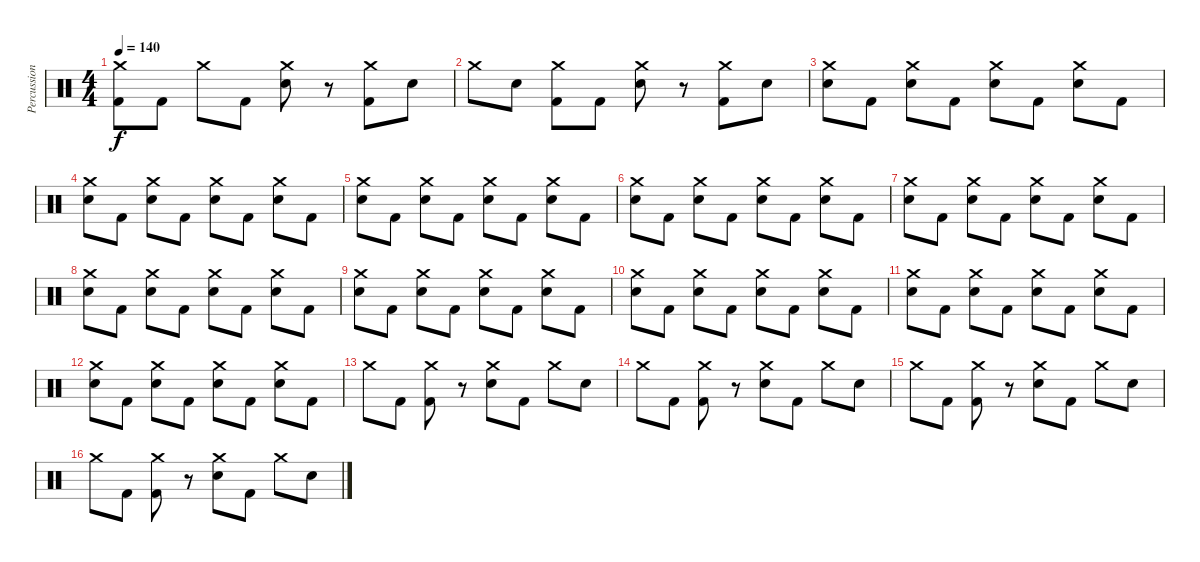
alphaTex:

\track ("Percussion" "Percussion") {instrument percussion}
\staff {score}
\articulation defaults
\ts (4 4)
\tempo 140
\clef neutral
\ks c
("Crash medium (hit)" "Kick (hit) 2").8{dy f} "Kick (hit) 2".8 "Crash medium (hit)".8 "Kick (hit) 2".8 ("Crash medium (hit)" "Electric Snare (hit)").8 r.8 ("Crash medium (hit)" "Kick (hit) 2").8 "Electric Snare (hit)".8 |
"Crash medium (hit)".8 "Electric Snare (hit)".8 ("Crash medium (hit)" "Kick (hit) 2").8 "Kick (hit) 2".8 ("Crash medium (hit)" "Electric Snare (hit)").8 r.8 ("Crash medium (hit)" "Kick (hit) 2").8 "Electric Snare (hit)".8 |
("Crash medium (hit)" "Electric Snare (hit)").8 "Kick (hit) 2".8 ("Crash medium (hit)" "Electric Snare (hit)").8 "Kick (hit) 2".8 ("Crash medium (hit)" "Electric Snare (hit)").8 "Kick (hit) 2".8 ("Crash medium (hit)" "Electric Snare (hit)").8 "Kick (hit) 2".8 |
("Crash medium (hit)" "Electric Snare (hit)").8 "Kick (hit) 2".8 ("Crash medium (hit)" "Electric Snare (hit)").8 "Kick (hit) 2".8 ("Crash medium (hit)" "Electric Snare (hit)").8 "Kick (hit) 2".8 ("Crash medium (hit)" "Electric Snare (hit)").8 "Kick (hit) 2".8 |
("Crash medium (hit)" "Electric Snare (hit)").8 "Kick (hit) 2".8 ("Crash medium (hit)" "Electric Snare (hit)").8 "Kick (hit) 2".8 ("Crash medium (hit)" "Electric Snare (hit)").8 "Kick (hit) 2".8 ("Crash medium (hit)" "Electric Snare (hit)").8 "Kick (hit) 2".8 |
("Crash medium (hit)" "Electric Snare (hit)").8 "Kick (hit) 2".8 ("Crash medium (hit)" "Electric Snare (hit)").8 "Kick (hit) 2".8 ("Crash medium (hit)" "Electric Snare (hit)").8 "Kick (hit) 2".8 ("Crash medium (hit)" "Electric Snare (hit)").8 "Kick (hit) 2".8 |
("Crash medium (hit)" "Electric Snare (hit)").8 "Kick (hit) 2".8 ("Crash medium (hit)" "Electric Snare (hit)").8 "Kick (hit) 2".8 ("Crash medium (hit)" "Electric Snare (hit)").8 "Kick (hit) 2".8 ("Crash medium (hit)" "Electric Snare (hit)").8 "Kick (hit) 2".8 |
("Crash medium (hit)" "Electric Snare (hit)").8 "Kick (hit) 2".8 ("Crash medium (hit)" "Electric Snare (hit)").8 "Kick (hit) 2".8 ("Crash medium (hit)" "Electric Snare (hit)").8 "Kick (hit) 2".8 ("Crash medium (hit)" "Electric Snare (hit)").8 "Kick (hit) 2".8 |
("Crash medium (hit)" "Electric Snare (hit)").8 "Kick (hit) 2".8 ("Crash medium (hit)" "Electric Snare (hit)").8 "Kick (hit) 2".8 ("Crash medium (hit)" "Electric Snare (hit)").8 "Kick (hit) 2".8 ("Crash medium (hit)" "Electric Snare (hit)").8 "Kick (hit) 2".8 |
("Crash medium (hit)" "Electric Snare (hit)").8 "Kick (hit) 2".8 ("Crash medium (hit)" "Electric Snare (hit)").8 "Kick (hit) 2".8 ("Crash medium (hit)" "Electric Snare (hit)").8 "Kick (hit) 2".8 ("Crash medium (hit)" "Electric Snare (hit)").8 "Kick (hit) 2".8 |
("Crash medium (hit)" "Electric Snare (hit)").8 "Kick (hit) 2".8 ("Crash medium (hit)" "Electric Snare (hit)").8 "Kick (hit) 2".8 ("Crash medium (hit)" "Electric Snare (hit)").8 "Kick (hit) 2".8 ("Crash medium (hit)" "Electric Snare (hit)").8 "Kick (hit) 2".8 |
("Crash medium (hit)" "Electric Snare (hit)").8 "Kick (hit) 2".8 ("Crash medium (hit)" "Electric Snare (hit)").8 "Kick (hit) 2".8 ("Crash medium (hit)" "Electric Snare (hit)").8 "Kick (hit) 2".8 ("Crash medium (hit)" "Electric Snare (hit)").8 "Kick (hit) 2".8 |
"Crash medium (hit)".8 "Kick (hit) 2".8 ("Crash medium (hit)" "Kick (hit) 2").8 r.8 ("Crash medium (hit)" "Electric Snare (hit)").8 "Kick (hit) 2".8 "Crash medium (hit)".8 "Electric Snare (hit)".8 |
"Crash medium (hit)".8 "Kick (hit) 2".8 ("Crash medium (hit)" "Kick (hit) 2").8 r.8 ("Crash medium (hit)" "Electric Snare (hit)").8 "Kick (hit) 2".8 "Crash medium (hit)".8 "Electric Snare (hit)".8 |
"Crash medium (hit)".8 "Kick (hit) 2".8 ("Crash medium (hit)" "Kick (hit) 2").8 r.8 ("Crash medium (hit)" "Electric Snare (hit)").8 "Kick (hit) 2".8 "Crash medium (hit)".8 "Electric Snare (hit)".8 |
"Crash medium (hit)".8 "Kick (hit) 2".8 ("Crash medium (hit)" "Kick (hit) 2").8 r.8 ("Crash medium (hit)" "Electric Snare (hit)").8 "Kick (hit) 2".8 "Crash medium (hit)".8 "Electric Snare (hit)".8
